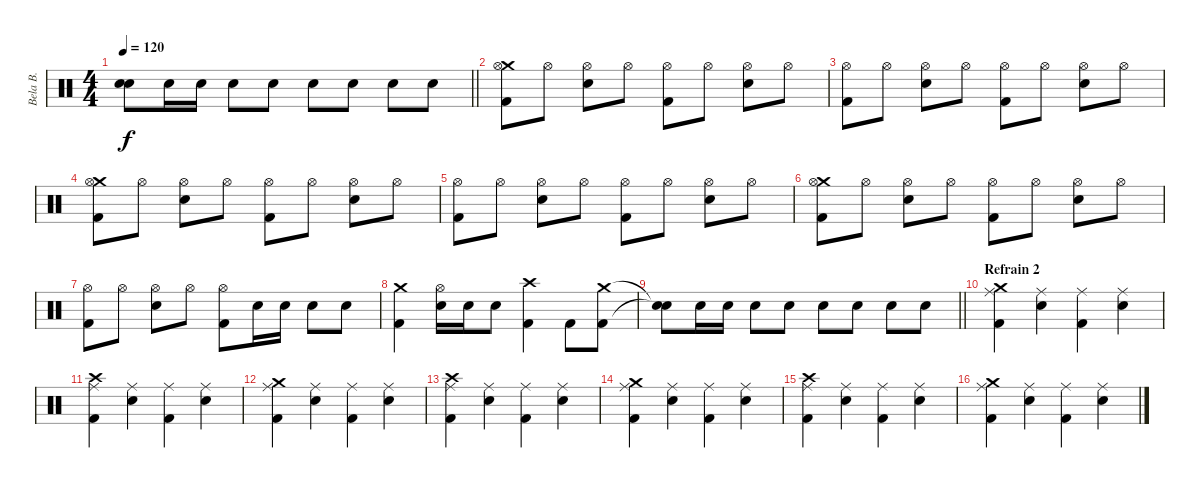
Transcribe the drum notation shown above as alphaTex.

\track ("Bela B." "Bela B.") {instrument percussion}
\staff {score}
\articulation defaults
\ts (4 4)
\tempo 120
\clef neutral
\barLineRight lightlight
\ks c
("Snare (hit)"{t} "Snare (hit)"{t}).8{dy f} "Snare (hit) 2".16 "Snare (hit) 2".16 "Snare (hit) 2".8 "Snare (hit) 2".8 "Snare (hit) 2".8 "Snare (hit) 2".8 "Snare (hit) 2".8 "Snare (hit) 2".8 |
("Crash medium (hit)" "Hi-Hat (open)" "Kick (hit) 2").8 "Hi-Hat (open)".8 ("Hi-Hat (open)" "Snare (hit) 2").8 "Hi-Hat (open)".8 ("Hi-Hat (open)" "Kick (hit) 2").8 "Hi-Hat (open)".8 ("Hi-Hat (open)" "Snare (hit) 2").8 "Hi-Hat (open)".8 |
("Hi-Hat (open)" "Kick (hit) 2").8 "Hi-Hat (open)".8 ("Hi-Hat (open)" "Snare (hit) 2").8 "Hi-Hat (open)".8 ("Hi-Hat (open)" "Kick (hit) 2").8 "Hi-Hat (open)".8 ("Hi-Hat (open)" "Snare (hit) 2").8 "Hi-Hat (open)".8 |
("Crash medium (hit)" "Hi-Hat (open)" "Kick (hit) 2").8 "Hi-Hat (open)".8 ("Hi-Hat (open)" "Snare (hit) 2").8 "Hi-Hat (open)".8 ("Hi-Hat (open)" "Kick (hit) 2").8 "Hi-Hat (open)".8 ("Hi-Hat (open)" "Snare (hit) 2").8 "Hi-Hat (open)".8 |
("Hi-Hat (open)" "Kick (hit) 2").8 "Hi-Hat (open)".8 ("Hi-Hat (open)" "Snare (hit) 2").8 "Hi-Hat (open)".8 ("Hi-Hat (open)" "Kick (hit) 2").8 "Hi-Hat (open)".8 ("Hi-Hat (open)" "Snare (hit) 2").8 "Hi-Hat (open)".8 |
("Crash medium (hit)" "Hi-Hat (open)" "Kick (hit) 2").8 "Hi-Hat (open)".8 ("Hi-Hat (open)" "Snare (hit) 2").8 "Hi-Hat (open)".8 ("Hi-Hat (open)" "Kick (hit) 2").8 "Hi-Hat (open)".8 ("Hi-Hat (open)" "Snare (hit) 2").8 "Hi-Hat (open)".8 |
("Hi-Hat (open)" "Kick (hit) 2").8 "Hi-Hat (open)".8 ("Hi-Hat (open)" "Snare (hit) 2").8 "Hi-Hat (open)".8 ("Hi-Hat (open)" "Kick (hit) 2").8 "Snare (hit) 2".16 "Snare (hit) 2".16 "Snare (hit) 2".8 "Snare (hit) 2".8 |
("Crash medium (hit)" "Kick (hit) 2").4 ("Hi-Hat (open)" "Snare (hit) 2").16 "Snare (hit) 2".16 "Snare (hit) 2".8 ("Crash high (hit)" "Kick (hit) 2").4 "Kick (hit) 2".8 ("Crash medium (hit)" "Kick (hit) 2").8 |
\barLineRight lightlight
("Snare (hit)"{t} "Snare (hit)"{t}).8 "Snare (hit) 2".16 "Snare (hit) 2".16 "Snare (hit) 2".8 "Snare (hit) 2".8 "Snare (hit) 2".8 "Snare (hit) 2".8 "Snare (hit) 2".8 "Snare (hit) 2".8 |
\section ("" "Refrain 2")
("Crash medium (hit)" "Ride (middle)" "Kick (hit) 2").4 ("Ride (middle)" "Snare (hit) 2").4 ("Ride (middle)" "Kick (hit) 2").4 ("Ride (middle)" "Snare (hit) 2").4 |
("Crash high (hit)" "Ride (middle)" "Kick (hit) 2").4 ("Ride (middle)" "Snare (hit) 2").4 ("Ride (middle)" "Kick (hit) 2").4 ("Ride (middle)" "Snare (hit) 2").4 |
("Crash medium (hit)" "Ride (middle)" "Kick (hit) 2").4 ("Ride (middle)" "Snare (hit) 2").4 ("Ride (middle)" "Kick (hit) 2").4 ("Ride (middle)" "Snare (hit) 2").4 |
("Crash high (hit)" "Ride (middle)" "Kick (hit) 2").4 ("Ride (middle)" "Snare (hit) 2").4 ("Ride (middle)" "Kick (hit) 2").4 ("Ride (middle)" "Snare (hit) 2").4 |
("Crash medium (hit)" "Ride (middle)" "Kick (hit) 2").4 ("Ride (middle)" "Snare (hit) 2").4 ("Ride (middle)" "Kick (hit) 2").4 ("Ride (middle)" "Snare (hit) 2").4 |
("Crash high (hit)" "Ride (middle)" "Kick (hit) 2").4 ("Ride (middle)" "Snare (hit) 2").4 ("Ride (middle)" "Kick (hit) 2").4 ("Ride (middle)" "Snare (hit) 2").4 |
("Crash medium (hit)" "Ride (middle)" "Kick (hit) 2").4 ("Ride (middle)" "Snare (hit) 2").4 ("Ride (middle)" "Kick (hit) 2").4 ("Ride (middle)" "Snare (hit) 2").4
